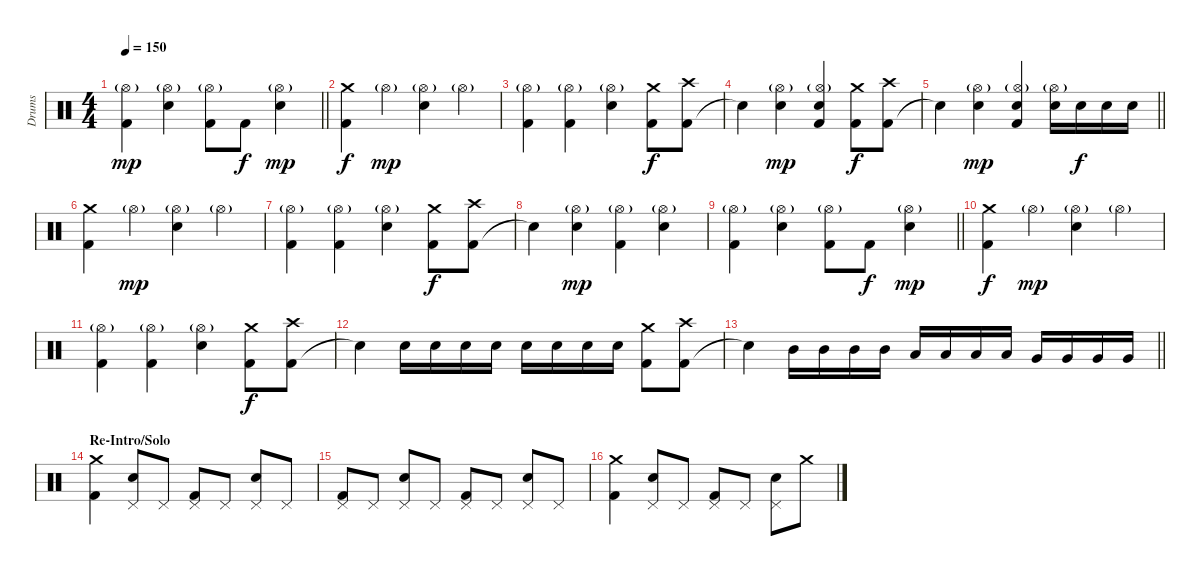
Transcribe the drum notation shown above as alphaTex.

\track ("Drums" "Drums") {instrument percussion}
\staff {score}
\articulation defaults
\ts (4 4)
\tempo 150
\clef neutral
\barLineRight lightlight
\ks c
("Kick (hit) 2" "Hi-Hat (open)"{g}).4{dy mp} ("Snare (hit) 2" "Hi-Hat (open)"{g}).4 ("Kick (hit) 2" "Hi-Hat (open)"{g}).8 "Kick (hit) 2".8{dy f} ("Snare (hit) 2" "Hi-Hat (open)"{g}).4{dy mp} |
\section ("" "")
("Kick (hit) 2" "Crash medium (hit)").4{dy f} "Hi-Hat (open)"{g}.4{dy mp} ("Snare (hit) 2" "Hi-Hat (open)"{g}).4 "Hi-Hat (open)"{g}.4 |
("Kick (hit) 2" "Hi-Hat (open)"{g}).4 ("Kick (hit) 2" "Hi-Hat (open)"{g}).4 ("Snare (hit) 2" "Hi-Hat (open)"{g}).4 ("Kick (hit) 2" "Crash medium (hit)").8{dy f} ("Kick (hit) 2" "Crash high (hit)").8 |
"Snare (hit)"{t}.4 ("Snare (hit) 2" "Hi-Hat (open)"{g}).4{dy mp} ("Kick (hit) 2" "Snare (hit) 2" "Hi-Hat (open)"{g}).4 ("Kick (hit) 2" "Crash medium (hit)").8{dy f} ("Kick (hit) 2" "Crash high (hit)").8 |
\barLineRight lightlight "Snare (hit)"{t}.4
("Snare (hit) 2" "Hi-Hat (open)"{g}).4{dy mp} ("Kick (hit) 2" "Snare (hit) 2" "Hi-Hat (open)"{g}).4 ("Snare (hit) 2" "Hi-Hat (open)"{g}).16 "Snare (hit) 2".16{dy f} "Snare (hit) 2".16 "Snare (hit) 2".16 |
\section ("" "")
("Kick (hit) 2" "Crash medium (hit)").4 "Hi-Hat (open)"{g}.4{dy mp} ("Snare (hit) 2" "Hi-Hat (open)"{g}).4 "Hi-Hat (open)"{g}.4 |
("Kick (hit) 2" "Hi-Hat (open)"{g}).4 ("Kick (hit) 2" "Hi-Hat (open)"{g}).4 ("Snare (hit) 2" "Hi-Hat (open)"{g}).4 ("Kick (hit) 2" "Crash medium (hit)").8{dy f} ("Kick (hit) 2" "Crash high (hit)").8 |
"Snare (hit)"{t}.4 ("Snare (hit) 2" "Hi-Hat (open)"{g}).4{dy mp} ("Kick (hit) 2" "Hi-Hat (open)"{g}).4 ("Snare (hit) 2" "Hi-Hat (open)"{g}).4 |
\barLineRight lightlight
("Kick (hit) 2" "Hi-Hat (open)"{g}).4 ("Snare (hit) 2" "Hi-Hat (open)"{g}).4 ("Kick (hit) 2" "Hi-Hat (open)"{g}).8 "Kick (hit) 2".8{dy f} ("Snare (hit) 2" "Hi-Hat (open)"{g}).4{dy mp} |
\section ("" "")
("Kick (hit) 2" "Crash medium (hit)").4{dy f} "Hi-Hat (open)"{g}.4{dy mp} ("Snare (hit) 2" "Hi-Hat (open)"{g}).4 "Hi-Hat (open)"{g}.4 |
("Kick (hit) 2" "Hi-Hat (open)"{g}).4 ("Kick (hit) 2" "Hi-Hat (open)"{g}).4 ("Snare (hit) 2" "Hi-Hat (open)"{g}).4 ("Kick (hit) 2" "Crash medium (hit)").8{dy f} ("Kick (hit) 2" "Crash high (hit)").8 |
"Snare (hit)"{t}.4 "Snare (hit) 2".16 "Snare (hit) 2".16 "Snare (hit) 2".16 "Snare (hit) 2".16 "Snare (hit) 2".16 "Snare (hit) 2".16 "Snare (hit) 2".16 "Snare (hit) 2".16 ("Kick (hit) 2" "Crash medium (hit)").8 ("Kick (hit) 2" "Crash high (hit)").8 |
\barLineRight lightlight "Snare (hit)"{t}.4 "Mid Tom (hit)".16 "Mid Tom (hit)".16 "Mid Tom (hit)".16 "Mid Tom (hit)".16 "Low Tom (hit)".16 "Low Tom (hit)".16 "Low Tom (hit)".16 "Low Tom (hit)".16 "Very Low Tom (hit)".16 "Very Low Tom (hit)".16 "Very Low Tom (hit)".16 "Very Low Tom (hit)".16
|
\section ("" "Re-Intro/Solo")
("Kick (hit) 2" "Crash medium (hit)").4 ("Snare (hit) 2" "Pedal Hi-Hat (hit)").8 "Pedal Hi-Hat (hit)".8 ("Kick (hit) 2" "Pedal Hi-Hat (hit)").8 "Pedal Hi-Hat (hit)".8 ("Snare (hit) 2" "Pedal Hi-Hat (hit)").8 "Pedal Hi-Hat (hit)".8 |
("Kick (hit) 2" "Pedal Hi-Hat (hit)").8 "Pedal Hi-Hat (hit)".8 ("Snare (hit) 2" "Pedal Hi-Hat (hit)").8 "Pedal Hi-Hat (hit)".8 ("Kick (hit) 2" "Pedal Hi-Hat (hit)").8 "Pedal Hi-Hat (hit)".8 ("Snare (hit) 2" "Pedal Hi-Hat (hit)").8 "Pedal Hi-Hat (hit)".8 |
("Kick (hit) 2" "Crash medium (hit)").4 ("Snare (hit) 2" "Pedal Hi-Hat (hit)").8 "Pedal Hi-Hat (hit)".8 ("Kick (hit) 2" "Pedal Hi-Hat (hit)").8 "Pedal Hi-Hat (hit)".8 ("Snare (hit) 2" "Pedal Hi-Hat (hit)").8 "Crash medium (hit)".8
